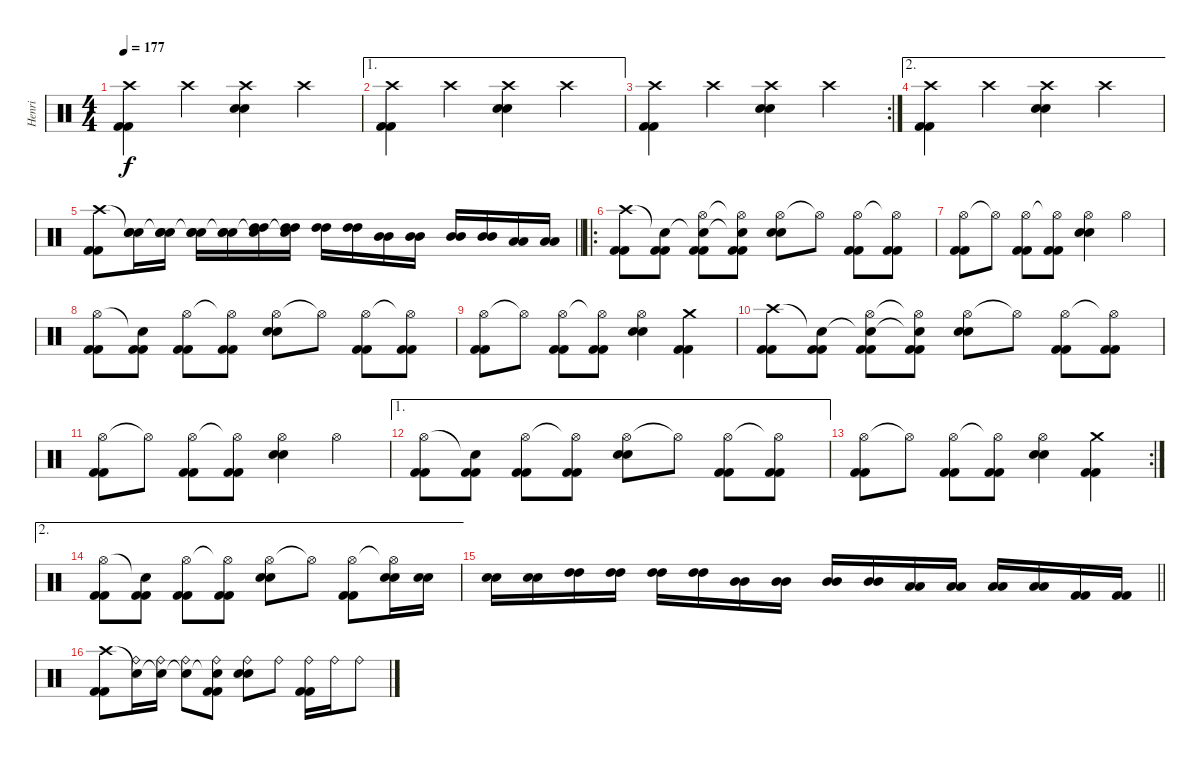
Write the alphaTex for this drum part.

\track ("Henri" "Henri") {instrument percussion}
\staff {score}
\articulation defaults
\ts (4 4)
\tempo 177
\clef neutral
\ks c
("Crash high (hit)" "Kick (hit) 2" "Kick (hit) 2").4{dy f} "Crash high (hit)".4 ("Crash high (hit)" "Snare (hit) 2" "Snare (hit) 2").4 "Crash high (hit)".4 |
\ae 1
("Crash high (hit)" "Kick (hit) 2" "Kick (hit) 2").4 "Crash high (hit)".4 ("Crash high (hit)" "Snare (hit) 2" "Snare (hit) 2").4 "Crash high (hit)".4 |
\rc 2
("Crash high (hit)" "Kick (hit) 2" "Kick (hit) 2").4 "Crash high (hit)".4 ("Crash high (hit)" "Snare (hit) 2" "Snare (hit) 2").4 "Crash high (hit)".4 |
\ae 2
("Crash high (hit)" "Kick (hit) 2" "Kick (hit) 2").4 "Crash high (hit)".4 ("Crash high (hit)" "Snare (hit) 2" "Snare (hit) 2").4 "Crash high (hit)".4 |
\barLineRight lightlight
("Crash high (hit)" "Kick (hit) 2" "Kick (hit) 2").8 ("Snare (hit)"{t} "Snare (hit) 2" "Snare (hit) 2").16 ("Snare (hit)"{t} "Snare (hit) 2" "Snare (hit) 2").16 ("Snare (hit)"{t} "Snare (hit) 2" "Snare (hit) 2").16 ("Snare (hit)"{t} "Snare (hit) 2" "Snare (hit) 2").16 ("Snare (hit)"{t} "High Tom (hit)" "High Tom (hit)").16 ("Snare (hit)"{t} "High Tom (hit)" "High Tom (hit)").16 ("High Tom (hit)" "High Tom (hit)").16 ("High Tom (hit)" "High Tom (hit)").16 ("Mid Tom (hit)" "Mid Tom (hit)").16 ("Mid Tom (hit)" "Mid Tom (hit)").16 ("Mid Tom (hit)" "Mid Tom (hit)").16 ("Mid Tom (hit)" "Mid Tom (hit)").16 ("Low Tom (hit)" "Low Tom (hit)").16 ("Low Tom (hit)" "Low Tom (hit)").16 |
\ro
("Crash high (hit)" "Kick (hit) 2" "Kick (hit) 2").8 ("Snare (hit)"{t} "Kick (hit) 2" "Kick (hit) 2").8 ("Snare (hit)"{t} "Hi-Hat (open)" "Kick (hit) 2" "Kick (hit) 2").8 ("Snare (hit)"{t} "Hi-Hat (open)"{t} "Kick (hit) 2" "Kick (hit) 2").8 ("Hi-Hat (open)" "Snare (hit) 2" "Snare (hit) 2").8 "Hi-Hat (open)"{t}.8 ("Hi-Hat (open)" "Kick (hit) 2" "Kick (hit) 2").8 ("Hi-Hat (open)"{t} "Kick (hit) 2" "Kick (hit) 2").8 |
("Hi-Hat (open)" "Kick (hit) 2" "Kick (hit) 2").8 "Hi-Hat (open)"{t}.8 ("Hi-Hat (open)" "Kick (hit) 2" "Kick (hit) 2").8 ("Hi-Hat (open)"{t} "Kick (hit) 2" "Kick (hit) 2").8 ("Hi-Hat (open)" "Snare (hit) 2" "Snare (hit) 2").4 "Hi-Hat (open)".4 |
("Hi-Hat (open)" "Kick (hit) 2" "Kick (hit) 2").8 ("Snare (hit)"{t} "Kick (hit) 2" "Kick (hit) 2").8 ("Hi-Hat (open)" "Kick (hit) 2" "Kick (hit) 2").8 ("Hi-Hat (open)"{t} "Kick (hit) 2" "Kick (hit) 2").8 ("Hi-Hat (open)" "Snare (hit) 2" "Snare (hit) 2").8 "Hi-Hat (open)"{t}.8 ("Hi-Hat (open)" "Kick (hit) 2" "Kick (hit) 2").8 ("Hi-Hat (open)"{t} "Kick (hit) 2" "Kick (hit) 2").8 |
("Hi-Hat (open)" "Kick (hit) 2" "Kick (hit) 2").8 "Hi-Hat (open)"{t}.8 ("Hi-Hat (open)" "Kick (hit) 2" "Kick (hit) 2").8 ("Hi-Hat (open)"{t} "Kick (hit) 2" "Kick (hit) 2").8 ("Hi-Hat (open)" "Snare (hit) 2" "Snare (hit) 2").4 ("Crash medium (hit)" "Kick (hit) 2" "Kick (hit) 2").4 |
("Crash high (hit)" "Kick (hit) 2" "Kick (hit) 2").8 ("Snare (hit)"{t} "Kick (hit) 2" "Kick (hit) 2").8 ("Snare (hit)"{t} "Hi-Hat (open)" "Kick (hit) 2" "Kick (hit) 2").8 ("Snare (hit)"{t} "Hi-Hat (open)"{t} "Kick (hit) 2" "Kick (hit) 2").8 ("Hi-Hat (open)" "Snare (hit) 2" "Snare (hit) 2").8 "Hi-Hat (open)"{t}.8 ("Hi-Hat (open)" "Kick (hit) 2" "Kick (hit) 2").8 ("Hi-Hat (open)"{t} "Kick (hit) 2" "Kick (hit) 2").8 |
("Hi-Hat (open)" "Kick (hit) 2" "Kick (hit) 2").8 "Hi-Hat (open)"{t}.8 ("Hi-Hat (open)" "Kick (hit) 2" "Kick (hit) 2").8 ("Hi-Hat (open)"{t} "Kick (hit) 2" "Kick (hit) 2").8 ("Hi-Hat (open)" "Snare (hit) 2" "Snare (hit) 2").4 "Hi-Hat (open)".4 |
\ae 1
("Hi-Hat (open)" "Kick (hit) 2" "Kick (hit) 2").8 ("Snare (hit)"{t} "Kick (hit) 2" "Kick (hit) 2").8 ("Hi-Hat (open)" "Kick (hit) 2" "Kick (hit) 2").8 ("Hi-Hat (open)"{t} "Kick (hit) 2" "Kick (hit) 2").8 ("Hi-Hat (open)" "Snare (hit) 2" "Snare (hit) 2").8 "Hi-Hat (open)"{t}.8 ("Hi-Hat (open)" "Kick (hit) 2" "Kick (hit) 2").8 ("Hi-Hat (open)"{t} "Kick (hit) 2" "Kick (hit) 2").8 |
\rc 2
("Hi-Hat (open)" "Kick (hit) 2" "Kick (hit) 2").8 "Hi-Hat (open)"{t}.8 ("Hi-Hat (open)" "Kick (hit) 2" "Kick (hit) 2").8 ("Hi-Hat (open)"{t} "Kick (hit) 2" "Kick (hit) 2").8 ("Hi-Hat (open)" "Snare (hit) 2" "Snare (hit) 2").4 ("Crash medium (hit)" "Kick (hit) 2" "Kick (hit) 2").4 |
\ae 2
("Hi-Hat (open)" "Kick (hit) 2" "Kick (hit) 2").8 ("Snare (hit)"{t} "Kick (hit) 2" "Kick (hit) 2").8 ("Hi-Hat (open)" "Kick (hit) 2" "Kick (hit) 2").8 ("Hi-Hat (open)"{t} "Kick (hit) 2" "Kick (hit) 2").8 ("Hi-Hat (open)" "Snare (hit) 2" "Snare (hit) 2").8 "Hi-Hat (open)"{t}.8 ("Hi-Hat (open)" "Kick (hit) 2" "Kick (hit) 2").8 ("Hi-Hat (open)"{t} "Snare (hit) 2" "Snare (hit) 2").16 ("Snare (hit) 2" "Snare (hit) 2").16 |
\barLineRight lightlight
("Snare (hit) 2" "Snare (hit) 2").16 ("Snare (hit) 2" "Snare (hit) 2").16 ("High Tom (hit)" "High Tom (hit)").16 ("High Tom (hit)" "High Tom (hit)").16 ("High Tom (hit)" "High Tom (hit)").16 ("High Tom (hit)" "High Tom (hit)").16 ("Mid Tom (hit)" "Mid Tom (hit)").16 ("Mid Tom (hit)" "Mid Tom (hit)").16 ("Mid Tom (hit)" "Mid Tom (hit)").16 ("Mid Tom (hit)" "Mid Tom (hit)").16 ("Low Tom (hit)" "Low Tom (hit)").16 ("Low Tom (hit)" "Low Tom (hit)").16 ("Low Tom (hit)" "Low Tom (hit)").16 ("Low Tom (hit)" "Low Tom (hit)").16 ("Kick (hit) 2" "Kick (hit) 2").16 ("Kick (hit) 2" "Kick (hit) 2").16 |
("Crash high (hit)" "Kick (hit) 2" "Kick (hit) 2").8 ("Snare (hit)"{t} "Ride (bell)").16 ("Snare (hit)"{t} "Ride (bell)").16 ("Snare (hit)"{t} "Ride (bell)").8 ("Snare (hit)"{t} "Ride (bell)" "Kick (hit) 2" "Kick (hit) 2").8 ("Ride (bell)" "Snare (hit) 2" "Snare (hit) 2").8 "Ride (bell)".8 ("Ride (bell)" "Kick (hit) 2" "Kick (hit) 2").16 "Ride (bell)".16 "Ride (bell)".8
